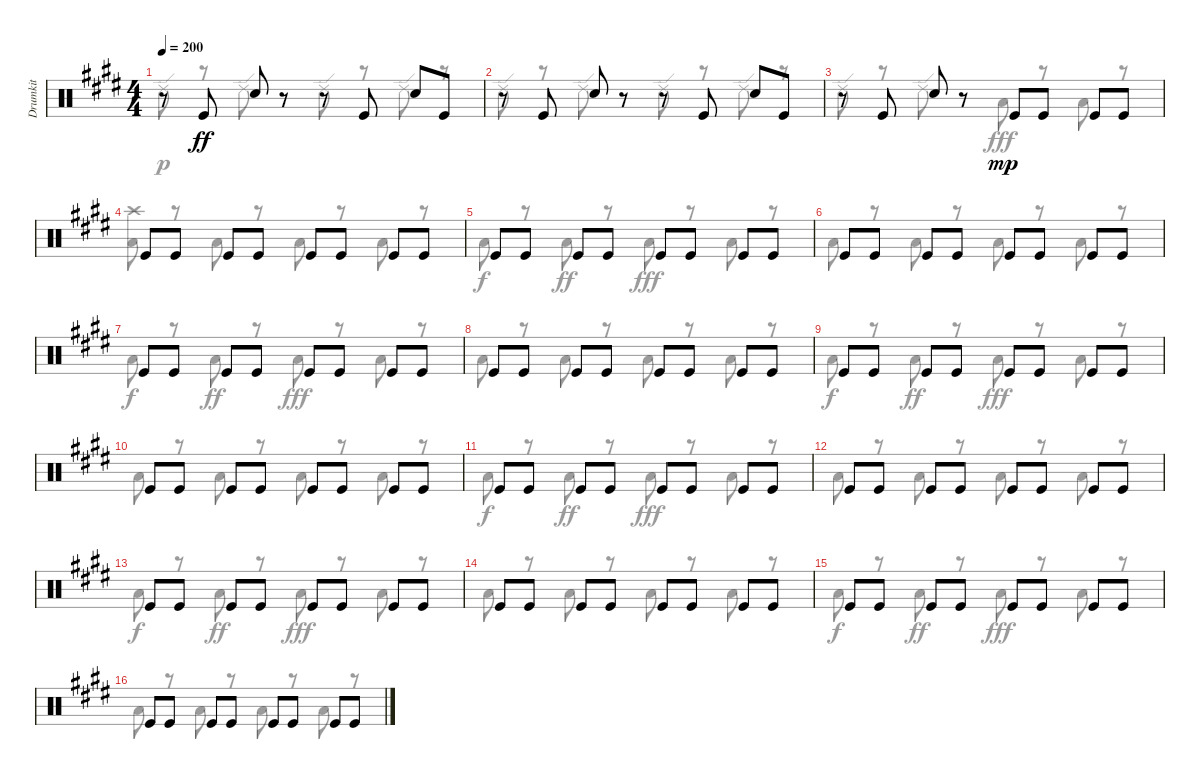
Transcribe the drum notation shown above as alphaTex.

\track ("Drumkit" "Drumkit") {instrument percussion}
\staff {score}
\articulation defaults
\voice
\ts (4 4)
\tempo 200
\clef neutral
\ks c#minor
r.8{dy ff} "Kick (hit)".8 "Snare (hit) 2".8 r.8 r.8 "Kick (hit)".8 "Snare (hit) 2".8 "Kick (hit)".8 |
r.8 "Kick (hit)".8 "Snare (hit) 2".8 r.8 r.8 "Kick (hit)".8 "Snare (hit) 2".8 "Kick (hit)".8 |
r.8 "Kick (hit)".8 "Snare (hit) 2".8 r.8 "Kick (hit)".8{dy mp} "Kick (hit)".8 "Kick (hit)".8 "Kick (hit)".8 |
"Kick (hit)".8 "Kick (hit)".8 "Kick (hit)".8 "Kick (hit)".8 "Kick (hit)".8 "Kick (hit)".8 "Kick (hit)".8 "Kick (hit)".8 |
"Kick (hit)".8 "Kick (hit)".8 "Kick (hit)".8 "Kick (hit)".8 "Kick (hit)".8 "Kick (hit)".8 "Kick (hit)".8 "Kick (hit)".8 |
"Kick (hit)".8 "Kick (hit)".8 "Kick (hit)".8 "Kick (hit)".8 "Kick (hit)".8 "Kick (hit)".8 "Kick (hit)".8 "Kick (hit)".8 |
"Kick (hit)".8 "Kick (hit)".8 "Kick (hit)".8 "Kick (hit)".8 "Kick (hit)".8 "Kick (hit)".8 "Kick (hit)".8 "Kick (hit)".8 |
"Kick (hit)".8 "Kick (hit)".8 "Kick (hit)".8 "Kick (hit)".8 "Kick (hit)".8 "Kick (hit)".8 "Kick (hit)".8 "Kick (hit)".8 |
"Kick (hit)".8 "Kick (hit)".8 "Kick (hit)".8 "Kick (hit)".8 "Kick (hit)".8 "Kick (hit)".8 "Kick (hit)".8 "Kick (hit)".8 |
"Kick (hit)".8 "Kick (hit)".8 "Kick (hit)".8 "Kick (hit)".8 "Kick (hit)".8 "Kick (hit)".8 "Kick (hit)".8 "Kick (hit)".8 |
"Kick (hit)".8 "Kick (hit)".8 "Kick (hit)".8 "Kick (hit)".8 "Kick (hit)".8 "Kick (hit)".8 "Kick (hit)".8 "Kick (hit)".8 |
"Kick (hit)".8 "Kick (hit)".8 "Kick (hit)".8 "Kick (hit)".8 "Kick (hit)".8 "Kick (hit)".8 "Kick (hit)".8 "Kick (hit)".8 |
"Kick (hit)".8 "Kick (hit)".8 "Kick (hit)".8 "Kick (hit)".8 "Kick (hit)".8 "Kick (hit)".8 "Kick (hit)".8 "Kick (hit)".8 |
"Kick (hit)".8 "Kick (hit)".8 "Kick (hit)".8 "Kick (hit)".8 "Kick (hit)".8 "Kick (hit)".8 "Kick (hit)".8 "Kick (hit)".8 |
"Kick (hit)".8 "Kick (hit)".8 "Kick (hit)".8 "Kick (hit)".8 "Kick (hit)".8 "Kick (hit)".8 "Kick (hit)".8 "Kick (hit)".8 |
"Kick (hit)".8 "Kick (hit)".8 "Kick (hit)".8 "Kick (hit)".8 "Kick (hit)".8 "Kick (hit)".8 "Kick (hit)".8 "Kick (hit)".8
\voice
\clef neutral
\ottava regular
\simile none
\ks c#minor "Ride (edge) 2".8{dy p}
r.8 "Ride (edge) 2".8 r.8 "Ride (edge) 2".8 r.8 "Ride (edge) 2".8 r.8 |
"Ride (edge) 2".8 r.8 "Ride (edge) 2".8 r.8 "Ride (edge) 2".8 r.8 "Ride (edge) 2".8 r.8 |
"Ride (edge) 2".8 r.8 "Ride (edge) 2".8 r.8 "Low Tom (hit)".8{dy fff} r.8 "Low Floor Tom (hit)".8 r.8 |
("Low Tom (hit)" "Crash high (hit)").8 r.8 "Low Floor Tom (hit)".8 r.8 "Low Tom (hit)".8 r.8 "Low Floor Tom (hit)".8 r.8 |
"Low Tom (hit)".8{dy f} r.8 "Low Tom (hit)".8{dy ff} r.8 "Low Tom (hit)".8{dy fff} r.8 "Low Floor Tom (hit)".8 r.8 |
"Low Tom (hit)".8 r.8 "Low Floor Tom (hit)".8 r.8 "Low Tom (hit)".8 r.8 "Low Floor Tom (hit)".8 r.8 |
"Low Tom (hit)".8{dy f} r.8 "Low Tom (hit)".8{dy ff} r.8 "Low Tom (hit)".8{dy fff} r.8 "Low Floor Tom (hit)".8 r.8 |
"Low Tom (hit)".8 r.8 "Low Floor Tom (hit)".8 r.8 "Low Tom (hit)".8 r.8 "Low Floor Tom (hit)".8 r.8 |
"Low Tom (hit)".8{dy f} r.8 "Low Tom (hit)".8{dy ff} r.8 "Low Tom (hit)".8{dy fff} r.8 "Low Floor Tom (hit)".8 r.8 |
"Low Tom (hit)".8 r.8 "Low Floor Tom (hit)".8 r.8 "Low Tom (hit)".8 r.8 "Low Floor Tom (hit)".8 r.8 |
"Low Tom (hit)".8{dy f} r.8 "Low Tom (hit)".8{dy ff} r.8 "Low Tom (hit)".8{dy fff} r.8 "Low Floor Tom (hit)".8 r.8 |
"Low Tom (hit)".8 r.8 "Low Floor Tom (hit)".8 r.8 "Low Tom (hit)".8 r.8 "Low Floor Tom (hit)".8 r.8 |
"Low Tom (hit)".8{dy f} r.8 "Low Tom (hit)".8{dy ff} r.8 "Low Tom (hit)".8{dy fff} r.8 "Low Floor Tom (hit)".8 r.8 |
"Low Tom (hit)".8 r.8 "Low Floor Tom (hit)".8 r.8 "Low Tom (hit)".8 r.8 "Low Floor Tom (hit)".8 r.8 |
"Low Tom (hit)".8{dy f} r.8 "Low Tom (hit)".8{dy ff} r.8 "Low Tom (hit)".8{dy fff} r.8 "Low Floor Tom (hit)".8 r.8 |
"Low Tom (hit)".8 r.8 "Low Floor Tom (hit)".8 r.8 "Low Tom (hit)".8 r.8 "Low Floor Tom (hit)".8 r.8
